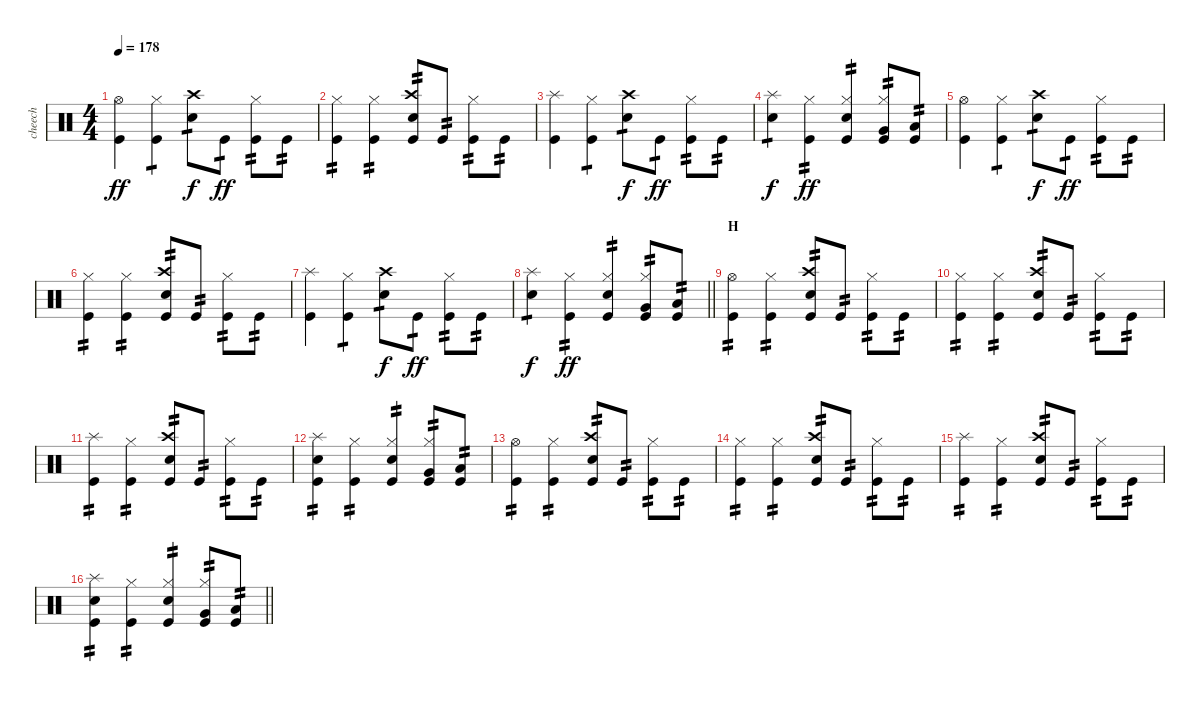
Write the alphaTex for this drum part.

\track ("cheech" "cheech") {solo instrument percussion}
\staff {score}
\articulation defaults
\ts (4 4)
\tempo 178
\clef neutral
\ks c
("Hi-Hat (open)" "Kick (hit)").4{dy ff} ("Hi-Hat (closed)" "Kick (hit)").4{tp 1} ("Crash high (hit)" "Electric Snare (hit)").8{tp 1 dy f} "Kick (hit)".8{tp 1 dy ff} ("Hi-Hat (closed)" "Kick (hit)").8{tp 2} "Kick (hit)".8{tp 2} |
("Hi-Hat (closed)" "Kick (hit)").4{tp 2} ("Hi-Hat (closed)" "Kick (hit)").4{tp 2} ("Crash high (hit)" "Electric Snare (hit)" "Kick (hit)").8{tp 2} "Kick (hit)".8{tp 2} ("Hi-Hat (closed)" "Kick (hit)").8{tp 2} "Kick (hit)".8{tp 2} |
("Splash (hit)" "Kick (hit)").4 ("Hi-Hat (closed)" "Kick (hit)").4{tp 1} ("Crash high (hit)" "Electric Snare (hit)").8{tp 1 dy f} "Kick (hit)".8{tp 1 dy ff} ("Hi-Hat (closed)" "Kick (hit)").8{tp 2} "Kick (hit)".8{tp 2} |
("Splash (hit)" "Electric Snare (hit)").4{tp 1 dy f} ("Hi-Hat (closed)" "Kick (hit)").4{tp 2 dy ff} ("Hi-Hat (closed)" "Electric Snare (hit)" "Kick (hit)").4{tp 2} ("Hi-Hat (closed)" "Very Low Tom (hit)" "Kick (hit)").8{tp 2} ("Low Floor Tom (hit)" "Kick (hit)").8{tp 2} |
("Hi-Hat (open)" "Kick (hit)").4 ("Hi-Hat (closed)" "Kick (hit)").4{tp 1} ("Crash high (hit)" "Electric Snare (hit)").8{tp 1 dy f} "Kick (hit)".8{tp 1 dy ff} ("Hi-Hat (closed)" "Kick (hit)").8{tp 2} "Kick (hit)".8{tp 2} |
("Hi-Hat (closed)" "Kick (hit)").4{tp 2} ("Hi-Hat (closed)" "Kick (hit)").4{tp 2} ("Crash high (hit)" "Electric Snare (hit)" "Kick (hit)").8{tp 2} "Kick (hit)".8{tp 2} ("Hi-Hat (closed)" "Kick (hit)").8{tp 2} "Kick (hit)".8{tp 2} |
("Splash (hit)" "Kick (hit)").4 ("Hi-Hat (closed)" "Kick (hit)").4{tp 1} ("Crash high (hit)" "Electric Snare (hit)").8{tp 1 dy f} "Kick (hit)".8{tp 1 dy ff} ("Hi-Hat (closed)" "Kick (hit)").8{tp 2} "Kick (hit)".8{tp 2} |
\barLineRight lightlight
("Splash (hit)" "Electric Snare (hit)").4{tp 1 dy f} ("Hi-Hat (closed)" "Kick (hit)").4{tp 2 dy ff} ("Hi-Hat (closed)" "Electric Snare (hit)" "Kick (hit)").4{tp 2} ("Hi-Hat (closed)" "Very Low Tom (hit)" "Kick (hit)").8{tp 2} ("Low Floor Tom (hit)" "Kick (hit)").8{tp 2} |
\section ("" "H")
("Hi-Hat (open)" "Kick (hit)").4{tp 2} ("Hi-Hat (closed)" "Kick (hit)").4{tp 2} ("Crash high (hit)" "Electric Snare (hit)" "Kick (hit)").8{tp 2} "Kick (hit)".8{tp 2} ("Hi-Hat (closed)" "Kick (hit)").8{tp 2} "Kick (hit)".8{tp 2} |
("Hi-Hat (closed)" "Kick (hit)").4{tp 2} ("Hi-Hat (closed)" "Kick (hit)").4{tp 2} ("Crash high (hit)" "Electric Snare (hit)" "Kick (hit)").8{tp 2} "Kick (hit)".8{tp 2} ("Hi-Hat (closed)" "Kick (hit)").8{tp 2} "Kick (hit)".8{tp 2} |
("Splash (hit)" "Kick (hit)").4{tp 2} ("Hi-Hat (closed)" "Kick (hit)").4{tp 2} ("Crash high (hit)" "Electric Snare (hit)" "Kick (hit)").8{tp 2} "Kick (hit)".8{tp 2} ("Hi-Hat (closed)" "Kick (hit)").8{tp 2} "Kick (hit)".8{tp 2} |
("Splash (hit)" "Electric Snare (hit)" "Kick (hit)").4{tp 2} ("Hi-Hat (closed)" "Kick (hit)").4{tp 2} ("Hi-Hat (closed)" "Electric Snare (hit)" "Kick (hit)").4{tp 2} ("Hi-Hat (closed)" "Very Low Tom (hit)" "Kick (hit)").8{tp 2} ("Low Floor Tom (hit)" "Kick (hit)").8{tp 2} |
("Hi-Hat (open)" "Kick (hit)").4{tp 2} ("Hi-Hat (closed)" "Kick (hit)").4{tp 2} ("Crash high (hit)" "Electric Snare (hit)" "Kick (hit)").8{tp 2} "Kick (hit)".8{tp 2} ("Hi-Hat (closed)" "Kick (hit)").8{tp 2} "Kick (hit)".8{tp 2} |
("Hi-Hat (closed)" "Kick (hit)").4{tp 2} ("Hi-Hat (closed)" "Kick (hit)").4{tp 2} ("Crash high (hit)" "Electric Snare (hit)" "Kick (hit)").8{tp 2} "Kick (hit)".8{tp 2} ("Hi-Hat (closed)" "Kick (hit)").8{tp 2} "Kick (hit)".8{tp 2} |
("Splash (hit)" "Kick (hit)").4{tp 2} ("Hi-Hat (closed)" "Kick (hit)").4{tp 2} ("Crash high (hit)" "Electric Snare (hit)" "Kick (hit)").8{tp 2} "Kick (hit)".8{tp 2} ("Hi-Hat (closed)" "Kick (hit)").8{tp 2} "Kick (hit)".8{tp 2} |
\barLineRight lightlight
("Splash (hit)" "Electric Snare (hit)" "Kick (hit)").4{tp 2} ("Hi-Hat (closed)" "Kick (hit)").4{tp 2} ("Hi-Hat (closed)" "Electric Snare (hit)" "Kick (hit)").4{tp 2} ("Hi-Hat (closed)" "Very Low Tom (hit)" "Kick (hit)").8{tp 2} ("Low Floor Tom (hit)" "Kick (hit)").8{tp 2}
